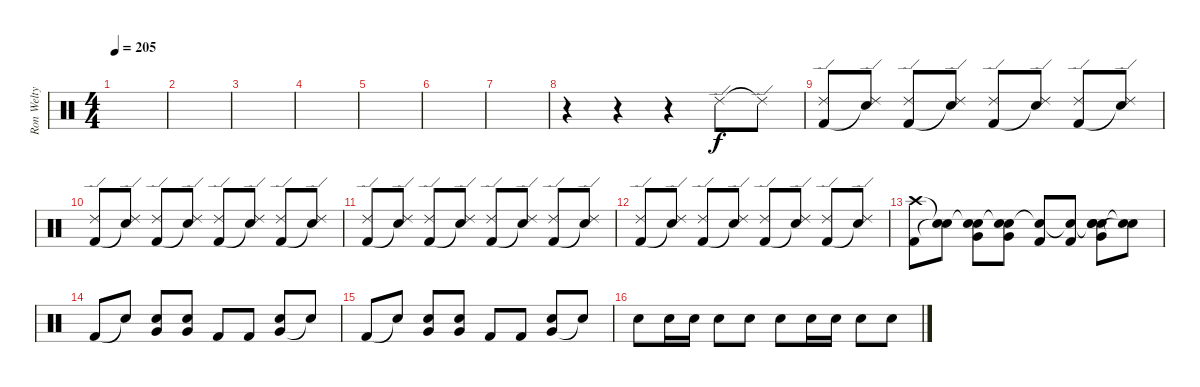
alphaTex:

\track ("Ron Welty" "Ron Welty") {instrument percussion}
\staff {score}
\articulation defaults
\ts (4 4)
\tempo 205
\clef neutral
\ks c
|
|
|
|
|
|
|
r.4 r.4 r.4 "Ride (edge) 2".8 "Ride (edge) 2"{t}.8 |
("Ride (edge) 2" "Kick (hit) 2").8 ("Ride (edge) 2" "Snare (hit)"{t}).8 ("Ride (edge) 2" "Kick (hit) 2").8 ("Ride (edge) 2" "Snare (hit)"{t}).8 ("Ride (edge) 2" "Kick (hit) 2").8 ("Ride (edge) 2" "Snare (hit)"{t}).8 ("Ride (edge) 2" "Kick (hit) 2").8 ("Ride (edge) 2" "Snare (hit)"{t}).8 |
("Ride (edge) 2" "Kick (hit) 2").8 ("Ride (edge) 2" "Snare (hit)"{t}).8 ("Ride (edge) 2" "Kick (hit) 2").8 ("Ride (edge) 2" "Snare (hit)"{t}).8 ("Ride (edge) 2" "Kick (hit) 2").8 ("Ride (edge) 2" "Snare (hit)"{t}).8 ("Ride (edge) 2" "Kick (hit) 2").8 ("Ride (edge) 2" "Snare (hit)"{t}).8 |
("Ride (edge) 2" "Kick (hit) 2").8 ("Ride (edge) 2" "Snare (hit)"{t}).8 ("Ride (edge) 2" "Kick (hit) 2").8 ("Ride (edge) 2" "Snare (hit)"{t}).8 ("Ride (edge) 2" "Kick (hit) 2").8 ("Ride (edge) 2" "Snare (hit)"{t}).8 ("Ride (edge) 2" "Kick (hit) 2").8 ("Ride (edge) 2" "Snare (hit)"{t}).8 |
("Ride (edge) 2" "Kick (hit) 2").8 ("Ride (edge) 2" "Snare (hit)"{t}).8 ("Ride (edge) 2" "Kick (hit) 2").8 ("Ride (edge) 2" "Snare (hit)"{t}).8 ("Ride (edge) 2" "Kick (hit) 2").8 ("Ride (edge) 2" "Snare (hit)"{t}).8 ("Ride (edge) 2" "Kick (hit) 2").8 ("Ride (edge) 2" "Snare (hit)"{t}).8 |
("Crash high (hit)" "Kick (hit) 2").8 ("Snare (hit)"{t} "Snare (hit)"{t}).8 ("Snare (hit)"{t} "Very Low Tom (hit)" "Electric Snare (hit)").8 ("Snare (hit)"{t} "Very Low Tom (hit)" "Electric Snare (hit)").8 ("Snare (hit)"{t} "Kick (hit) 2").8 ("Snare (hit)"{t} "Kick (hit) 2").8 ("Snare (hit)"{t} "Very Low Tom (hit)" "Electric Snare (hit)" "Snare (hit)").8 ("Snare (hit)"{t} "Electric Snare (hit)"{t}).8 |
"Kick (hit) 2".8 "Snare (hit)"{t}.8 ("Very Low Tom (hit)" "Electric Snare (hit)").8 ("Very Low Tom (hit)" "Electric Snare (hit)").8 "Kick (hit) 2".8 "Kick (hit) 2".8 ("Very Low Tom (hit)" "Electric Snare (hit)").8 "Snare (hit)"{t}.8 |
"Kick (hit) 2".8 "Snare (hit)"{t}.8 ("Very Low Tom (hit)" "Electric Snare (hit)").8 ("Very Low Tom (hit)" "Electric Snare (hit)").8 "Kick (hit) 2".8 "Kick (hit) 2".8 ("Very Low Tom (hit)" "Electric Snare (hit)").8 "Snare (hit)"{t}.8 |
"Electric Snare (hit)".8 "Electric Snare (hit)".16 "Electric Snare (hit)".16 "Electric Snare (hit)".8 "Electric Snare (hit)".8 "Electric Snare (hit)".8 "Electric Snare (hit)".16 "Electric Snare (hit)".16 "Electric Snare (hit)".8 "Electric Snare (hit)".8
